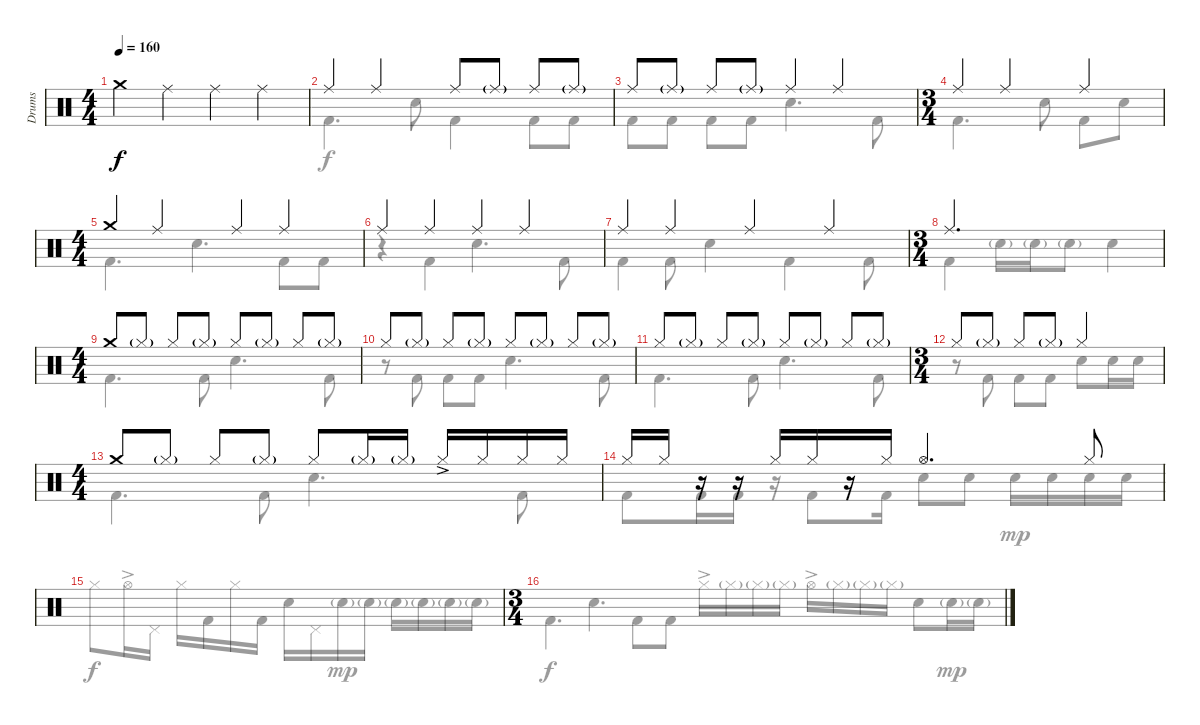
\track ("Drums" "Drums") {instrument percussion}
\staff {score}
\articulation defaults
\voice
\ts (4 4)
\tempo 160
\clef neutral
\ks c "Crash medium (hit)".4{dy f} "Ride (middle)".4 "Ride (middle)".4 "Ride (middle)".4
|
"Ride (middle)".4 "Ride (middle)".4 "Ride (middle)".8 "Ride (middle)"{g}.8 "Ride (middle)".8 "Ride (middle)"{g}.8 |
"Ride (middle)".8 "Ride (middle)"{g}.8 "Ride (middle)".8 "Ride (middle)"{g}.8 "Ride (middle)".4 "Ride (middle)".4 |
\ts (3 4)
"Ride (middle)".4 "Ride (middle)".4 "Ride (middle)".4 |
\ts (4 4)
"Crash medium (hit)".4 "Ride (middle)".4 "Ride (middle)".4 "Ride (middle)".4 |
"Ride (middle)".4 "Ride (middle)".4 "Ride (middle)".4 "Ride (middle)".4 |
"Ride (middle)".4 "Ride (middle)".4 "Ride (middle)".4 "Ride (middle)".4 |
\ts (3 4)
"Ride (middle)".2{d} |
\ts (4 4)
"Crash medium (hit)".8 "Hi-Hat (closed)"{g}.8 "Hi-Hat (closed)".8 "Hi-Hat (closed)"{g}.8 "Hi-Hat (closed)".8 "Hi-Hat (closed)"{g}.8 "Hi-Hat (closed)".8 "Hi-Hat (closed)"{g}.8 |
"Hi-Hat (closed)".8 "Hi-Hat (closed)"{g}.8 "Hi-Hat (closed)".8 "Hi-Hat (closed)"{g}.8 "Hi-Hat (closed)".8 "Hi-Hat (closed)"{g}.8 "Hi-Hat (closed)".8 "Hi-Hat (closed)"{g}.8 |
"Hi-Hat (closed)".8 "Hi-Hat (closed)"{g}.8 "Hi-Hat (closed)".8 "Hi-Hat (closed)"{g}.8 "Hi-Hat (closed)".8 "Hi-Hat (closed)"{g}.8 "Hi-Hat (closed)".8 "Hi-Hat (closed)"{g}.8 |
\ts (3 4)
"Hi-Hat (closed)".8 "Hi-Hat (closed)"{g}.8 "Hi-Hat (closed)".8 "Hi-Hat (closed)"{g}.8 "Hi-Hat (closed)".4 |
\ts (4 4)
"Crash medium (hit)".8 "Hi-Hat (closed)"{g}.8 "Hi-Hat (closed)".8 "Hi-Hat (closed)"{g}.8 "Hi-Hat (closed)".8 "Hi-Hat (closed)"{g}.16 "Hi-Hat (closed)"{g}.16 "Hi-Hat (closed)"{ac}.16 "Hi-Hat (closed)".16 "Hi-Hat (closed)".16 "Hi-Hat (closed)".16 |
"Hi-Hat (closed)".16 "Hi-Hat (closed)".16 r.16 r.16 "Hi-Hat (closed)".16 "Hi-Hat (closed)".16 r.16 "Hi-Hat (closed)".16 "Hi-Hat (open)".4{d} "Hi-Hat (closed)".8 |
|
\ts (3 4)
\voice
\clef neutral
\ottava regular
\simile none
\ks c "Kick (hit) 2".4{d dy f} "Snare (hit) 2".4{d} "Kick (hit) 2".8 "Kick (hit) 2".8
|
"Kick (hit) 2".4{d} "Snare (hit) 2".8 "Kick (hit) 2".4 "Kick (hit) 2".8 "Kick (hit) 2".8 |
"Kick (hit) 2".8 "Kick (hit) 2".8 "Kick (hit) 2".8 "Kick (hit) 2".8 "Snare (hit) 2".4{d} "Kick (hit) 2".8 |
"Kick (hit) 2".4{d} "Snare (hit) 2".8 "Kick (hit) 2".8 "Snare (hit) 2".8 |
"Kick (hit) 2".4{d} "Snare (hit) 2".4{d} "Kick (hit) 2".8 "Kick (hit) 2".8 |
r.4 "Kick (hit) 2".4 "Snare (hit) 2".4{d} "Kick (hit) 2".8 |
"Kick (hit) 2".4 "Kick (hit) 2".8 "Snare (hit) 2".4 "Kick (hit) 2".4 "Kick (hit) 2".8 |
"Kick (hit) 2".4 "Snare (hit) 2"{g}.16 "Snare (hit) 2"{g}.16 "Snare (hit) 2"{g}.8 "Snare (hit) 2".4 |
"Kick (hit) 2".4{d} "Kick (hit) 2".8 "Snare (hit) 2".4{d} "Kick (hit) 2".8 |
r.8 "Kick (hit) 2".8 "Kick (hit) 2".8 "Kick (hit) 2".8 "Snare (hit) 2".4{d} "Kick (hit) 2".8 |
"Kick (hit) 2".4{d} "Kick (hit) 2".8 "Snare (hit) 2".4{d} "Kick (hit) 2".8 |
r.8 "Kick (hit) 2".8 "Kick (hit) 2".8 "Kick (hit) 2".8 "Snare (hit) 2".8 "Snare (hit) 2".16 "Snare (hit) 2".16 |
"Kick (hit) 2".4{d} "Kick (hit) 2".8 "Snare (hit) 2".4{d} "Kick (hit) 2".8 |
"Kick (hit) 2".8 "Kick (hit) 2".16 "Kick (hit) 2".16 r.16 "Kick (hit) 2".8 "Kick (hit) 2".16 "Snare (hit) 2".8 "Snare (hit) 2".8 "Snare (hit) 2".16{dy mp} "Snare (hit) 2".16 "Snare (hit) 2".16 "Snare (hit) 2".16 |
"Hi-Hat (closed)".8{dy f} "Hi-Hat (open)"{ac}.16 "Pedal Hi-Hat (hit)".16 "Hi-Hat (closed)".16 "Kick (hit) 2".16 "Hi-Hat (closed)".16 "Kick (hit) 2".16 "Snare (hit) 2".16 "Pedal Hi-Hat (hit)".16 "Snare (hit) 2"{g}.16{dy mp} "Snare (hit) 2"{g}.16 "Snare (hit) 2"{g}.16 "Snare (hit) 2"{g}.16 "Snare (hit) 2"{g}.16 "Snare (hit) 2"{g}.16 |
"Hi-Hat (closed)"{ac}.16{dy f} "Hi-Hat (closed)"{g}.16 "Hi-Hat (closed)"{g}.16 "Hi-Hat (closed)"{g}.16 "Hi-Hat (open)"{ac}.16 "Hi-Hat (closed)"{g}.16 "Hi-Hat (closed)"{g}.16 "Hi-Hat (closed)"{g}.16 "Snare (hit) 2".8 "Snare (hit) 2"{g}.16{dy mp} "Snare (hit) 2"{g}.16
